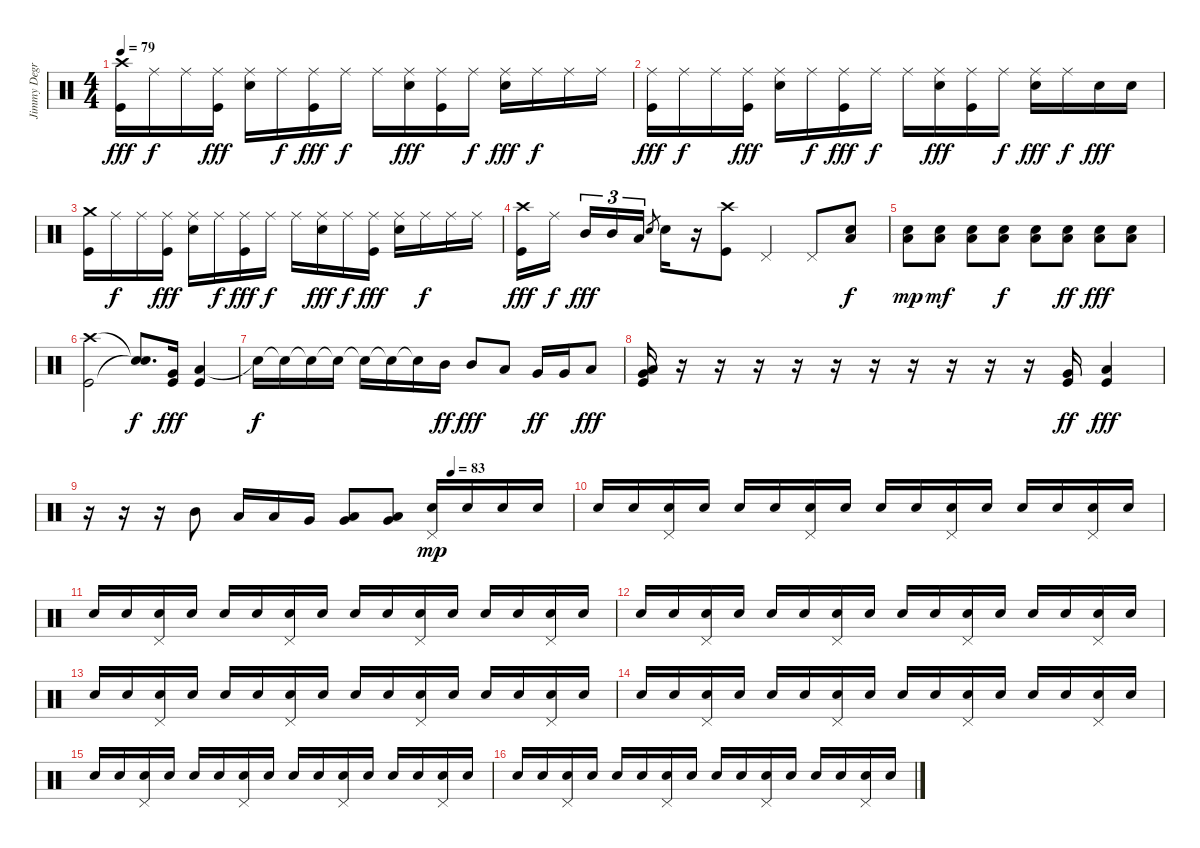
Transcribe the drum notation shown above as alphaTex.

\track ("Jimmy Degrasso" "Jimmy Degr") {instrument percussion}
\staff {score}
\articulation defaults
\ts (4 4)
\tempo 79
\clef neutral
\ks c
("Kick (hit)" "Crash high (hit)").16{dy fff} "Ride (middle)".16{dy f} "Ride (middle)".16 ("Kick (hit)" "Ride (middle)").16{dy fff} ("Electric Snare (hit)" "Ride (middle)").16 "Ride (middle)".16{dy f} ("Kick (hit)" "Ride (middle)").16{dy fff} "Ride (middle)".16{dy f} "Ride (middle)".16 ("Electric Snare (hit)" "Ride (middle)").16{dy fff} ("Kick (hit)" "Ride (middle)").16 "Ride (middle)".16{dy f} ("Electric Snare (hit)" "Ride (middle)").16{dy fff} "Ride (middle)".16{dy f} "Ride (middle)".16 "Ride (middle)".16 |
("Kick (hit)" "Ride (middle)").16{dy fff} "Ride (middle)".16{dy f} "Ride (middle)".16 ("Kick (hit)" "Ride (middle)").16{dy fff} ("Electric Snare (hit)" "Ride (middle)").16 "Ride (middle)".16{dy f} ("Kick (hit)" "Ride (middle)").16{dy fff} "Ride (middle)".16{dy f} "Ride (middle)".16 ("Electric Snare (hit)" "Ride (middle)").16{dy fff} ("Kick (hit)" "Ride (middle)").16 "Ride (middle)".16{dy f} ("Electric Snare (hit)" "Ride (middle)").16{dy fff} "Ride (middle)".16{dy f} "Electric Snare (hit)".16{dy fff} "Electric Snare (hit)".16 |
("Kick (hit)" "Crash medium (hit)").16 "Ride (middle)".16{dy f} "Ride (middle)".16 ("Kick (hit)" "Ride (middle)").16{dy fff} ("Electric Snare (hit)" "Ride (middle)").16 "Ride (middle)".16{dy f} ("Kick (hit)" "Ride (middle)").16{dy fff} "Ride (middle)".16{dy f} "Ride (middle)".16 ("Electric Snare (hit)" "Ride (middle)").16{dy fff} "Ride (middle)".16{dy f} ("Kick (hit)" "Ride (middle)").16{dy fff} ("Electric Snare (hit)" "Ride (middle)").16 "Ride (middle)".16{dy f} "Ride (middle)".16 "Ride (middle)".16 |
("Kick (hit)" "Crash high (hit)").16{dy fff} "Ride (middle)".16{dy f} "Mid Tom (hit)".16{tu (3 2) dy fff} "Mid Tom (hit)".16{tu (3 2)} "Low Tom (hit)".16{tu (3 2)} "Electric Snare (hit)".8{gr} "Electric Snare (hit)".16 r.16 ("Kick (hit)" "Crash high (hit)").8 "Pedal Hi-Hat (hit)".4 "Pedal Hi-Hat (hit)".8 ("Low Floor Tom (hit)" "Electric Snare (hit)").8{dy f} |
("Low Floor Tom (hit)" "Electric Snare (hit)").8{dy mp} ("Low Floor Tom (hit)" "Electric Snare (hit)").8{dy mf} ("Low Floor Tom (hit)" "Electric Snare (hit)").8 ("Low Floor Tom (hit)" "Electric Snare (hit)").8{dy f} ("Low Floor Tom (hit)" "Electric Snare (hit)").8 ("Low Floor Tom (hit)" "Electric Snare (hit)").8{dy ff} ("Low Floor Tom (hit)" "Electric Snare (hit)").8{dy fff} ("Low Floor Tom (hit)" "Electric Snare (hit)").8 |
("Kick (hit)" "Crash high (hit)").2 ("Snare (hit)"{t} "Snare (hit)"{t}).8{d dy f volume 16} ("Very Low Tom (hit)" "Kick (hit)").16{dy fff} ("Low Floor Tom (hit)" "Kick (hit)").4 |
"Snare (hit)"{t}.16{dy f} "Snare (hit)"{t}.16 "Snare (hit)"{t}.16 "Snare (hit)"{t}.16 "Snare (hit)"{t}.16 "Snare (hit)"{t}.16 "Snare (hit)"{t}.16 "Mid Tom (hit)".16{dy ff} "Mid Tom (hit)".8{dy fff} "Low Tom (hit)".8 "Very Low Tom (hit)".16{dy ff} "Very Low Tom (hit)".16 "Low Floor Tom (hit)".8{dy fff} |
("Low Floor Tom (hit)" "Very Low Tom (hit)" "Kick (hit)").16 r.16 r.16 r.16 r.16 r.16 r.16 r.16 r.16 r.16 r.16 ("Very Low Tom (hit)" "Kick (hit)").16{dy ff} ("Low Floor Tom (hit)" "Kick (hit)").4{dy fff} |
\tempo (83 0.75)
r.16 r.16 r.16 "Mid Tom (hit)".8 "Low Tom (hit)".16 "Low Tom (hit)".16 "Very Low Tom (hit)".16 ("Low Floor Tom (hit)" "Very Low Tom (hit)").8 ("Low Floor Tom (hit)" "Very Low Tom (hit)").8 ("Snare (hit) 2" "Pedal Hi-Hat (hit)").16{dy mp volume 11} "Snare (hit) 2".16 "Snare (hit) 2".16 "Snare (hit) 2".16 |
"Snare (hit) 2".16 "Snare (hit) 2".16 ("Snare (hit) 2" "Pedal Hi-Hat (hit)").16 "Snare (hit) 2".16 "Snare (hit) 2".16 "Snare (hit) 2".16 ("Snare (hit) 2" "Pedal Hi-Hat (hit)").16 "Snare (hit) 2".16 "Snare (hit) 2".16 "Snare (hit) 2".16 ("Snare (hit) 2" "Pedal Hi-Hat (hit)").16 "Snare (hit) 2".16 "Snare (hit) 2".16 "Snare (hit) 2".16 ("Snare (hit) 2" "Pedal Hi-Hat (hit)").16 "Snare (hit) 2".16 |
"Snare (hit) 2".16 "Snare (hit) 2".16 ("Snare (hit) 2" "Pedal Hi-Hat (hit)").16 "Snare (hit) 2".16 "Snare (hit) 2".16 "Snare (hit) 2".16 ("Snare (hit) 2" "Pedal Hi-Hat (hit)").16 "Snare (hit) 2".16 "Snare (hit) 2".16 "Snare (hit) 2".16 ("Snare (hit) 2" "Pedal Hi-Hat (hit)").16 "Snare (hit) 2".16 "Snare (hit) 2".16 "Snare (hit) 2".16 ("Snare (hit) 2" "Pedal Hi-Hat (hit)").16 "Snare (hit) 2".16 |
"Snare (hit) 2".16 "Snare (hit) 2".16 ("Snare (hit) 2" "Pedal Hi-Hat (hit)").16 "Snare (hit) 2".16 "Snare (hit) 2".16 "Snare (hit) 2".16 ("Snare (hit) 2" "Pedal Hi-Hat (hit)").16 "Snare (hit) 2".16 "Snare (hit) 2".16 "Snare (hit) 2".16 ("Snare (hit) 2" "Pedal Hi-Hat (hit)").16 "Snare (hit) 2".16 "Snare (hit) 2".16 "Snare (hit) 2".16 ("Snare (hit) 2" "Pedal Hi-Hat (hit)").16 "Snare (hit) 2".16 |
"Snare (hit) 2".16 "Snare (hit) 2".16 ("Snare (hit) 2" "Pedal Hi-Hat (hit)").16 "Snare (hit) 2".16 "Snare (hit) 2".16 "Snare (hit) 2".16 ("Snare (hit) 2" "Pedal Hi-Hat (hit)").16 "Snare (hit) 2".16 "Snare (hit) 2".16 "Snare (hit) 2".16 ("Snare (hit) 2" "Pedal Hi-Hat (hit)").16 "Snare (hit) 2".16 "Snare (hit) 2".16 "Snare (hit) 2".16 ("Snare (hit) 2" "Pedal Hi-Hat (hit)").16 "Snare (hit) 2".16 |
"Snare (hit) 2".16 "Snare (hit) 2".16 ("Snare (hit) 2" "Pedal Hi-Hat (hit)").16 "Snare (hit) 2".16 "Snare (hit) 2".16 "Snare (hit) 2".16 ("Snare (hit) 2" "Pedal Hi-Hat (hit)").16 "Snare (hit) 2".16 "Snare (hit) 2".16 "Snare (hit) 2".16 ("Snare (hit) 2" "Pedal Hi-Hat (hit)").16 "Snare (hit) 2".16 "Snare (hit) 2".16 "Snare (hit) 2".16 ("Snare (hit) 2" "Pedal Hi-Hat (hit)").16 "Snare (hit) 2".16 |
"Snare (hit) 2".16 "Snare (hit) 2".16 ("Snare (hit) 2" "Pedal Hi-Hat (hit)").16 "Snare (hit) 2".16 "Snare (hit) 2".16 "Snare (hit) 2".16 ("Snare (hit) 2" "Pedal Hi-Hat (hit)").16 "Snare (hit) 2".16 "Snare (hit) 2".16 "Snare (hit) 2".16 ("Snare (hit) 2" "Pedal Hi-Hat (hit)").16 "Snare (hit) 2".16 "Snare (hit) 2".16 "Snare (hit) 2".16 ("Snare (hit) 2" "Pedal Hi-Hat (hit)").16 "Snare (hit) 2".16 |
"Snare (hit) 2".16 "Snare (hit) 2".16 ("Snare (hit) 2" "Pedal Hi-Hat (hit)").16 "Snare (hit) 2".16 "Snare (hit) 2".16 "Snare (hit) 2".16 ("Snare (hit) 2" "Pedal Hi-Hat (hit)").16 "Snare (hit) 2".16 "Snare (hit) 2".16 "Snare (hit) 2".16 ("Snare (hit) 2" "Pedal Hi-Hat (hit)").16 "Snare (hit) 2".16 "Snare (hit) 2".16 "Snare (hit) 2".16 ("Snare (hit) 2" "Pedal Hi-Hat (hit)").16 "Snare (hit) 2".16
